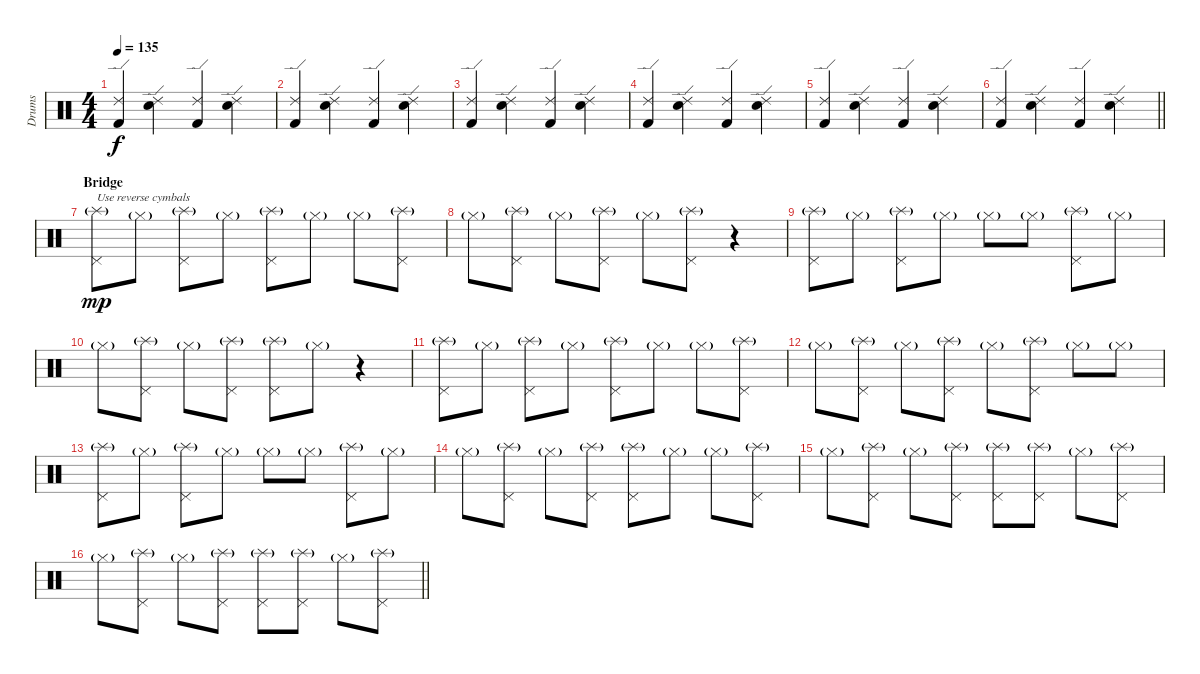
\track ("Drums" "Drums") {instrument percussion}
\staff {score}
\articulation defaults
\ts (4 4)
\tempo 135
\clef neutral
\ks c
("Kick (hit) 2" "Ride (edge) 2").4{dy f} ("Snare (hit) 2" "Ride (edge) 2").4 ("Kick (hit) 2" "Ride (edge) 2").4 ("Snare (hit) 2" "Ride (edge) 2").4 |
("Kick (hit) 2" "Ride (edge) 2").4 ("Snare (hit) 2" "Ride (edge) 2").4 ("Kick (hit) 2" "Ride (edge) 2").4 ("Snare (hit) 2" "Ride (edge) 2").4 |
("Kick (hit) 2" "Ride (edge) 2").4 ("Snare (hit) 2" "Ride (edge) 2").4 ("Kick (hit) 2" "Ride (edge) 2").4 ("Snare (hit) 2" "Ride (edge) 2").4 |
("Kick (hit) 2" "Ride (edge) 2").4 ("Snare (hit) 2" "Ride (edge) 2").4 ("Kick (hit) 2" "Ride (edge) 2").4 ("Snare (hit) 2" "Ride (edge) 2").4 |
("Kick (hit) 2" "Ride (edge) 2").4 ("Snare (hit) 2" "Ride (edge) 2").4 ("Kick (hit) 2" "Ride (edge) 2").4 ("Snare (hit) 2" "Ride (edge) 2").4 |
\barLineRight lightlight
("Kick (hit) 2" "Ride (edge) 2").4 ("Snare (hit) 2" "Ride (edge) 2").4 ("Kick (hit) 2" "Ride (edge) 2").4 ("Snare (hit) 2" "Ride (edge) 2").4 |
\section ("" "Bridge")
("Pedal Hi-Hat (hit)" "Splash (hit)"{g}).8{txt "Use reverse cymbals" dy mp} "Hi-Hat (closed)"{g}.8 ("Pedal Hi-Hat (hit)" "Splash (hit)"{g}).8 "Hi-Hat (closed)"{g}.8 ("Pedal Hi-Hat (hit)" "Splash (hit)"{g}).8 "Hi-Hat (closed)"{g}.8 "Hi-Hat (closed)"{g}.8 ("Pedal Hi-Hat (hit)" "Splash (hit)"{g}).8 |
"Hi-Hat (closed)"{g}.8 ("Pedal Hi-Hat (hit)" "Splash (hit)"{g}).8 "Hi-Hat (closed)"{g}.8 ("Pedal Hi-Hat (hit)" "Splash (hit)"{g}).8 "Hi-Hat (closed)"{g}.8 ("Pedal Hi-Hat (hit)" "Splash (hit)"{g}).8 r.4 |
("Pedal Hi-Hat (hit)" "Splash (hit)"{g}).8 "Hi-Hat (closed)"{g}.8 ("Pedal Hi-Hat (hit)" "Splash (hit)"{g}).8 "Hi-Hat (closed)"{g}.8 "Hi-Hat (closed)"{g}.8 "Hi-Hat (closed)"{g}.8 ("Pedal Hi-Hat (hit)" "Splash (hit)"{g}).8 "Hi-Hat (closed)"{g}.8 |
"Hi-Hat (closed)"{g}.8 ("Pedal Hi-Hat (hit)" "Splash (hit)"{g}).8 "Hi-Hat (closed)"{g}.8 ("Pedal Hi-Hat (hit)" "Splash (hit)"{g}).8 ("Pedal Hi-Hat (hit)" "Splash (hit)"{g}).8 "Hi-Hat (closed)"{g}.8 r.4 |
("Pedal Hi-Hat (hit)" "Splash (hit)"{g}).8 "Hi-Hat (closed)"{g}.8 ("Pedal Hi-Hat (hit)" "Splash (hit)"{g}).8 "Hi-Hat (closed)"{g}.8 ("Pedal Hi-Hat (hit)" "Splash (hit)"{g}).8 "Hi-Hat (closed)"{g}.8 "Hi-Hat (closed)"{g}.8 ("Pedal Hi-Hat (hit)" "Splash (hit)"{g}).8 |
"Hi-Hat (closed)"{g}.8 ("Pedal Hi-Hat (hit)" "Splash (hit)"{g}).8 "Hi-Hat (closed)"{g}.8 ("Pedal Hi-Hat (hit)" "Splash (hit)"{g}).8 "Hi-Hat (closed)"{g}.8 ("Pedal Hi-Hat (hit)" "Splash (hit)"{g}).8 "Hi-Hat (closed)"{g}.8 "Hi-Hat (closed)"{g}.8 |
("Pedal Hi-Hat (hit)" "Splash (hit)"{g}).8 "Hi-Hat (closed)"{g}.8 ("Pedal Hi-Hat (hit)" "Splash (hit)"{g}).8 "Hi-Hat (closed)"{g}.8 "Hi-Hat (closed)"{g}.8 "Hi-Hat (closed)"{g}.8 ("Pedal Hi-Hat (hit)" "Splash (hit)"{g}).8 "Hi-Hat (closed)"{g}.8 |
"Hi-Hat (closed)"{g}.8 ("Pedal Hi-Hat (hit)" "Splash (hit)"{g}).8 "Hi-Hat (closed)"{g}.8 ("Pedal Hi-Hat (hit)" "Splash (hit)"{g}).8 ("Pedal Hi-Hat (hit)" "Splash (hit)"{g}).8 "Hi-Hat (closed)"{g}.8 "Hi-Hat (closed)"{g}.8 ("Pedal Hi-Hat (hit)" "Splash (hit)"{g}).8 |
"Hi-Hat (closed)"{g}.8 ("Pedal Hi-Hat (hit)" "Splash (hit)"{g}).8 "Hi-Hat (closed)"{g}.8 ("Pedal Hi-Hat (hit)" "Splash (hit)"{g}).8 ("Pedal Hi-Hat (hit)" "Splash (hit)"{g}).8 ("Pedal Hi-Hat (hit)" "Splash (hit)"{g}).8 "Hi-Hat (closed)"{g}.8 ("Pedal Hi-Hat (hit)" "Splash (hit)"{g}).8 |
\barLineRight lightlight "Hi-Hat (closed)"{g}.8
("Pedal Hi-Hat (hit)" "Splash (hit)"{g}).8 "Hi-Hat (closed)"{g}.8 ("Pedal Hi-Hat (hit)" "Splash (hit)"{g}).8 ("Pedal Hi-Hat (hit)" "Splash (hit)"{g}).8 ("Pedal Hi-Hat (hit)" "Splash (hit)"{g}).8 "Hi-Hat (closed)"{g}.8 ("Pedal Hi-Hat (hit)" "Splash (hit)"{g}).8
